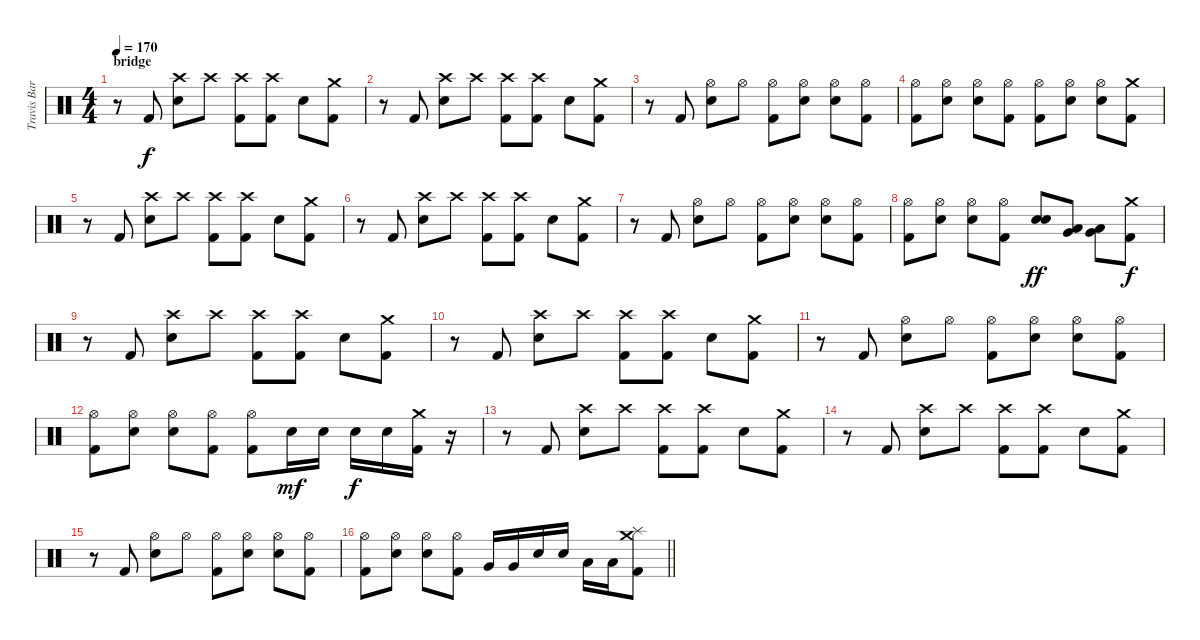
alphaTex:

\track ("Travis Barker" "Travis Bar") {instrument percussion}
\staff {score}
\articulation defaults
\ts (4 4)
\section ("" "bridge")
\tempo 170
\clef neutral
\ks c
r.8{dy f} "Kick (hit) 2".8 ("Crash high (hit)" "Electric Snare (hit)").8 "Crash high (hit)".8 ("Crash high (hit)" "Kick (hit) 2").8 ("Crash high (hit)" "Kick (hit) 2").8 "Electric Snare (hit)".8 ("Crash medium (hit)" "Kick (hit) 2").8 |
r.8 "Kick (hit) 2".8 ("Crash high (hit)" "Electric Snare (hit)").8 "Crash high (hit)".8 ("Crash high (hit)" "Kick (hit) 2").8 ("Crash high (hit)" "Kick (hit) 2").8 "Electric Snare (hit)".8 ("Crash medium (hit)" "Kick (hit) 2").8 |
r.8 "Kick (hit) 2".8 ("Hi-Hat (open)" "Electric Snare (hit)").8 "Hi-Hat (open)".8 ("Hi-Hat (open)" "Kick (hit) 2").8 ("Hi-Hat (open)" "Electric Snare (hit)").8 ("Hi-Hat (open)" "Electric Snare (hit)").8 ("Hi-Hat (open)" "Kick (hit) 2").8 |
("Hi-Hat (open)" "Kick (hit) 2").8 ("Hi-Hat (open)" "Electric Snare (hit)").8 ("Hi-Hat (open)" "Electric Snare (hit)").8 ("Hi-Hat (open)" "Kick (hit) 2").8 ("Hi-Hat (open)" "Kick (hit) 2").8 ("Hi-Hat (open)" "Electric Snare (hit)").8 ("Hi-Hat (open)" "Electric Snare (hit)").8 ("Crash medium (hit)" "Kick (hit) 2").8 |
r.8 "Kick (hit) 2".8 ("Crash high (hit)" "Electric Snare (hit)").8 "Crash high (hit)".8 ("Crash high (hit)" "Kick (hit) 2").8 ("Crash high (hit)" "Kick (hit) 2").8 "Electric Snare (hit)".8 ("Crash medium (hit)" "Kick (hit) 2").8 |
r.8 "Kick (hit) 2".8 ("Crash high (hit)" "Electric Snare (hit)").8 "Crash high (hit)".8 ("Crash high (hit)" "Kick (hit) 2").8 ("Crash high (hit)" "Kick (hit) 2").8 "Electric Snare (hit)".8 ("Crash medium (hit)" "Kick (hit) 2").8 |
r.8 "Kick (hit) 2".8 ("Hi-Hat (open)" "Electric Snare (hit)").8 "Hi-Hat (open)".8 ("Hi-Hat (open)" "Kick (hit) 2").8 ("Hi-Hat (open)" "Electric Snare (hit)").8 ("Hi-Hat (open)" "Electric Snare (hit)").8 ("Hi-Hat (open)" "Kick (hit) 2").8 |
("Hi-Hat (open)" "Kick (hit) 2").8 ("Hi-Hat (open)" "Electric Snare (hit)").8 ("Hi-Hat (open)" "Electric Snare (hit)").8 ("Hi-Hat (open)" "Kick (hit) 2").8 ("Electric Snare (hit)" "Electric Snare (hit)").8{dy ff} ("Very Low Tom (hit)" "Low Floor Tom (hit)").8 ("Very Low Tom (hit)" "Low Floor Tom (hit)").8 ("Crash medium (hit)" "Kick (hit) 2").8{dy f} |
r.8 "Kick (hit) 2".8 ("Crash high (hit)" "Electric Snare (hit)").8 "Crash high (hit)".8 ("Crash high (hit)" "Kick (hit) 2").8 ("Crash high (hit)" "Kick (hit) 2").8 "Electric Snare (hit)".8 ("Crash medium (hit)" "Kick (hit) 2").8 |
r.8 "Kick (hit) 2".8 ("Crash high (hit)" "Electric Snare (hit)").8 "Crash high (hit)".8 ("Crash high (hit)" "Kick (hit) 2").8 ("Crash high (hit)" "Kick (hit) 2").8 "Electric Snare (hit)".8 ("Crash medium (hit)" "Kick (hit) 2").8 |
r.8 "Kick (hit) 2".8 ("Hi-Hat (open)" "Electric Snare (hit)").8 "Hi-Hat (open)".8 ("Hi-Hat (open)" "Kick (hit) 2").8 ("Hi-Hat (open)" "Electric Snare (hit)").8 ("Hi-Hat (open)" "Electric Snare (hit)").8 ("Hi-Hat (open)" "Kick (hit) 2").8 |
("Hi-Hat (open)" "Kick (hit) 2").8 ("Hi-Hat (open)" "Electric Snare (hit)").8 ("Hi-Hat (open)" "Electric Snare (hit)").8 ("Hi-Hat (open)" "Kick (hit) 2").8 ("Hi-Hat (open)" "Kick (hit) 2").8 "Electric Snare (hit)".16{dy mf} "Electric Snare (hit)".16 "Electric Snare (hit)".16{dy f} "Electric Snare (hit)".16 ("Crash medium (hit)" "Kick (hit) 2").16 r.16 |
r.8 "Kick (hit) 2".8 ("Crash high (hit)" "Electric Snare (hit)").8 "Crash high (hit)".8 ("Crash high (hit)" "Kick (hit) 2").8 ("Crash high (hit)" "Kick (hit) 2").8 "Electric Snare (hit)".8 ("Crash medium (hit)" "Kick (hit) 2").8 |
r.8 "Kick (hit) 2".8 ("Crash high (hit)" "Electric Snare (hit)").8 "Crash high (hit)".8 ("Crash high (hit)" "Kick (hit) 2").8 ("Crash high (hit)" "Kick (hit) 2").8 "Electric Snare (hit)".8 ("Crash medium (hit)" "Kick (hit) 2").8 |
r.8 "Kick (hit) 2".8 ("Hi-Hat (open)" "Electric Snare (hit)").8 "Hi-Hat (open)".8 ("Hi-Hat (open)" "Kick (hit) 2").8 ("Hi-Hat (open)" "Electric Snare (hit)").8 ("Hi-Hat (open)" "Electric Snare (hit)").8 ("Hi-Hat (open)" "Kick (hit) 2").8 |
\barLineRight lightlight
("Hi-Hat (open)" "Kick (hit) 2").8 ("Hi-Hat (open)" "Electric Snare (hit)").8 ("Hi-Hat (open)" "Electric Snare (hit)").8 ("Hi-Hat (open)" "Kick (hit) 2").8 "Very Low Tom (hit)".16 "Very Low Tom (hit)".16 "Electric Snare (hit)".16 "Electric Snare (hit)".16 "Low Floor Tom (hit)".16 "Low Floor Tom (hit)".16 ("Splash (hit)" "Crash medium (hit)" "Kick (hit) 2").8
